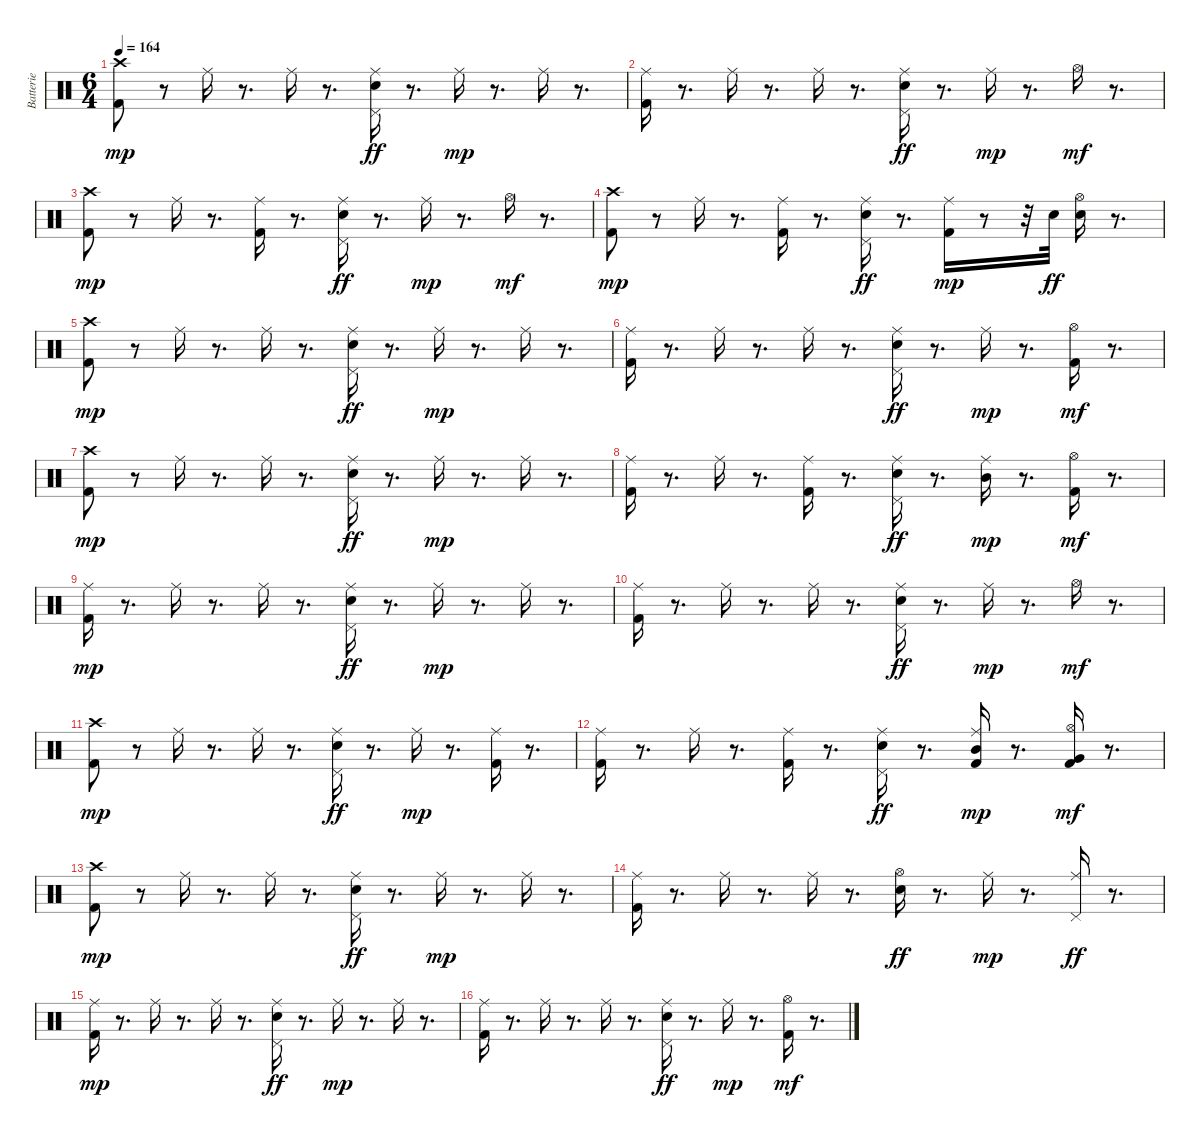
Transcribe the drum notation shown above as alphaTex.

\track ("Batterie" "Batterie") {instrument percussion}
\staff {score}
\articulation defaults
\ts (6 4)
\tempo 164
\clef neutral
\ks c
("Kick (hit) 2" "Crash high (hit)").8{dy mp} r.8 "Ride (middle)".16 r.8{d} "Ride (middle)".16 r.8{d} ("Ride (middle)" "Pedal Hi-Hat (hit)" "Electric Snare (hit)").16{dy ff} r.8{d} "Ride (middle)".16{dy mp} r.8{d} "Ride (middle)".16 r.8{d} |
("Kick (hit) 2" "Ride (middle)").16 r.8{d} "Ride (middle)".16 r.8{d} "Ride (middle)".16 r.8{d} ("Ride (middle)" "Pedal Hi-Hat (hit)" "Electric Snare (hit)").16{dy ff} r.8{d} "Ride (middle)".16{dy mp} r.8{d} "Hi-Hat (open)".16{dy mf} r.8{d} |
("Kick (hit) 2" "Crash high (hit)").8{dy mp} r.8 "Ride (middle)".16 r.8{d} ("Kick (hit) 2" "Ride (middle)").16 r.8{d} ("Ride (middle)" "Pedal Hi-Hat (hit)" "Electric Snare (hit)").16{dy ff} r.8{d} "Ride (middle)".16{dy mp} r.8{d} "Hi-Hat (open)".16{dy mf} r.8{d} |
("Kick (hit) 2" "Crash high (hit)").8{dy mp} r.8 "Ride (middle)".16 r.8{d} ("Kick (hit) 2" "Ride (middle)").16 r.8{d} ("Ride (middle)" "Pedal Hi-Hat (hit)" "Electric Snare (hit)").16{dy ff} r.8{d} ("Kick (hit) 2" "Ride (middle)").16{dy mp} r.8 r.32 "Electric Snare (hit)".32{dy ff} ("Hi-Hat (open)" "Electric Snare (hit)").16 r.8{d} |
("Kick (hit) 2" "Crash high (hit)").8{dy mp} r.8 "Ride (middle)".16 r.8{d} "Ride (middle)".16 r.8{d} ("Ride (middle)" "Pedal Hi-Hat (hit)" "Electric Snare (hit)").16{dy ff} r.8{d} "Ride (middle)".16{dy mp} r.8{d} "Ride (middle)".16 r.8{d} |
("Kick (hit) 2" "Ride (middle)").16 r.8{d} "Ride (middle)".16 r.8{d} "Ride (middle)".16 r.8{d} ("Ride (middle)" "Pedal Hi-Hat (hit)" "Electric Snare (hit)").16{dy ff} r.8{d} "Ride (middle)".16{dy mp} r.8{d} ("Kick (hit) 2" "Hi-Hat (open)").16{dy mf} r.8{d} |
("Kick (hit) 2" "Crash high (hit)").8{dy mp} r.8 "Ride (middle)".16 r.8{d} "Ride (middle)".16 r.8{d} ("Ride (middle)" "Pedal Hi-Hat (hit)" "Electric Snare (hit)").16{dy ff} r.8{d} "Ride (middle)".16{dy mp} r.8{d} "Ride (middle)".16 r.8{d} |
("Kick (hit) 2" "Ride (middle)").16 r.8{d} "Ride (middle)".16 r.8{d} ("Kick (hit) 2" "Ride (middle)").16 r.8{d} ("Ride (middle)" "Pedal Hi-Hat (hit)" "Electric Snare (hit)").16{dy ff} r.8{d} ("Ride (middle)" "Mid Tom (hit)").16{dy mp} r.8{d} ("Kick (hit) 2" "Hi-Hat (open)").16{dy mf} r.8{d} |
("Kick (hit) 2" "Ride (middle)").16{dy mp} r.8{d} "Ride (middle)".16 r.8{d} "Ride (middle)".16 r.8{d} ("Ride (middle)" "Pedal Hi-Hat (hit)" "Electric Snare (hit)").16{dy ff} r.8{d} "Ride (middle)".16{dy mp} r.8{d} "Ride (middle)".16 r.8{d} |
("Kick (hit) 2" "Ride (middle)").16 r.8{d} "Ride (middle)".16 r.8{d} "Ride (middle)".16 r.8{d} ("Ride (middle)" "Pedal Hi-Hat (hit)" "Electric Snare (hit)").16{dy ff} r.8{d} "Ride (middle)".16{dy mp} r.8{d} "Hi-Hat (open)".16{dy mf} r.8{d} |
("Kick (hit) 2" "Crash high (hit)").8{dy mp} r.8 "Ride (middle)".16 r.8{d} "Ride (middle)".16 r.8{d} ("Ride (middle)" "Pedal Hi-Hat (hit)" "Electric Snare (hit)").16{dy ff} r.8{d} "Ride (middle)".16{dy mp} r.8{d} ("Kick (hit) 2" "Ride (middle)").16 r.8{d} |
("Kick (hit) 2" "Ride (middle)").16 r.8{d} "Ride (middle)".16 r.8{d} ("Kick (hit) 2" "Ride (middle)").16 r.8{d} ("Ride (middle)" "Pedal Hi-Hat (hit)" "Electric Snare (hit)").16{dy ff} r.8{d} ("Kick (hit) 2" "Ride (middle)" "Mid Tom (hit)").16{dy mp} r.8{d} ("Kick (hit) 2" "Hi-Hat (open)" "Very Low Tom (hit)").16{dy mf} r.8{d} |
("Kick (hit) 2" "Crash high (hit)").8{dy mp} r.8 "Ride (middle)".16 r.8{d} "Ride (middle)".16 r.8{d} ("Ride (middle)" "Pedal Hi-Hat (hit)" "Electric Snare (hit)").16{dy ff} r.8{d} "Ride (middle)".16{dy mp} r.8{d} "Ride (middle)".16 r.8{d} |
("Kick (hit) 2" "Ride (middle)").16 r.8{d} "Ride (middle)".16 r.8{d} "Ride (middle)".16 r.8{d} ("Hi-Hat (open)" "Electric Snare (hit)").16{dy ff} r.8{d} "Ride (middle)".16{dy mp} r.8{d} ("Ride (middle)" "Pedal Hi-Hat (hit)").16{dy ff} r.8{d} |
("Kick (hit) 2" "Ride (middle)").16{dy mp} r.8{d} "Ride (middle)".16 r.8{d} "Ride (middle)".16 r.8{d} ("Ride (middle)" "Pedal Hi-Hat (hit)" "Electric Snare (hit)").16{dy ff} r.8{d} "Ride (middle)".16{dy mp} r.8{d} "Ride (middle)".16 r.8{d} |
("Kick (hit) 2" "Ride (middle)").16 r.8{d} "Ride (middle)".16 r.8{d} "Ride (middle)".16 r.8{d} ("Ride (middle)" "Pedal Hi-Hat (hit)" "Electric Snare (hit)").16{dy ff} r.8{d} "Ride (middle)".16{dy mp} r.8{d} ("Kick (hit) 2" "Hi-Hat (open)").16{dy mf} r.8{d}
